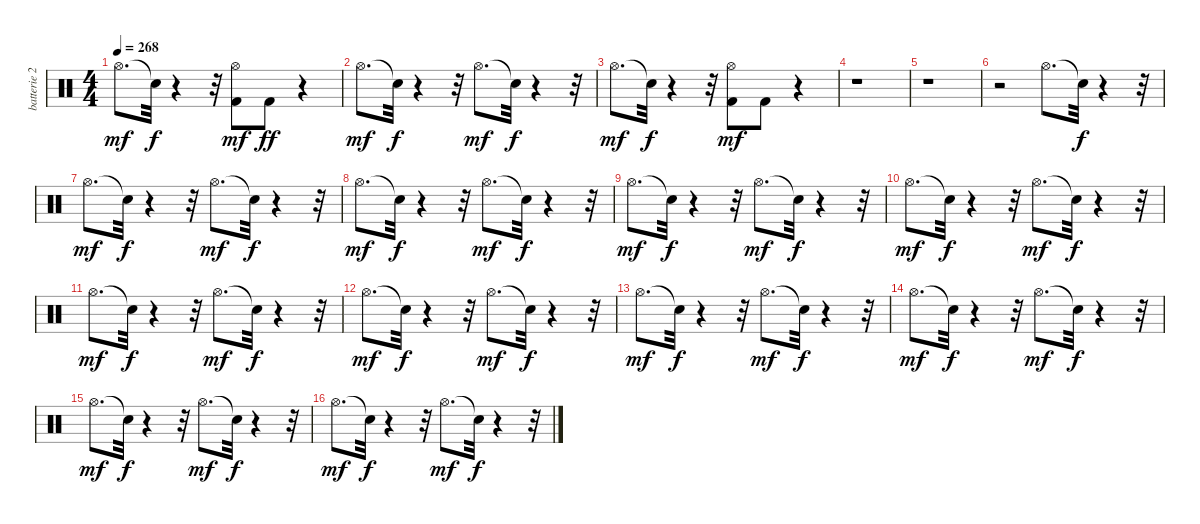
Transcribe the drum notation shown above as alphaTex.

\track ("batterie 2" "batterie 2") {instrument percussion}
\staff {score}
\articulation defaults
\ts (4 4)
\tempo 268
\clef neutral
\ks c "Hi-Hat (open)".8{d dy mf} "Snare (hit)"{t}.32{dy f}
r.4 r.32 ("Kick (hit) 2" "Hi-Hat (open)").8{dy mf} "Kick (hit) 2".8{dy ff} r.4 |
"Hi-Hat (open)".8{d dy mf} "Snare (hit)"{t}.32{dy f} r.4 r.32 "Hi-Hat (open)".8{d dy mf} "Snare (hit)"{t}.32{dy f} r.4 r.32 |
"Hi-Hat (open)".8{d dy mf} "Snare (hit)"{t}.32{dy f} r.4 r.32 ("Kick (hit) 2" "Hi-Hat (open)").8{dy mf} "Kick (hit) 2".8 r.4 |
r.1 |
r.1 |
r.2 "Hi-Hat (open)".8{d} "Snare (hit)"{t}.32{dy f} r.4 r.32 |
"Hi-Hat (open)".8{d dy mf} "Snare (hit)"{t}.32{dy f} r.4 r.32 "Hi-Hat (open)".8{d dy mf} "Snare (hit)"{t}.32{dy f} r.4 r.32 |
"Hi-Hat (open)".8{d dy mf} "Snare (hit)"{t}.32{dy f} r.4 r.32 "Hi-Hat (open)".8{d dy mf} "Snare (hit)"{t}.32{dy f} r.4 r.32 |
"Hi-Hat (open)".8{d dy mf} "Snare (hit)"{t}.32{dy f} r.4 r.32 "Hi-Hat (open)".8{d dy mf} "Snare (hit)"{t}.32{dy f} r.4 r.32 |
"Hi-Hat (open)".8{d dy mf} "Snare (hit)"{t}.32{dy f} r.4 r.32 "Hi-Hat (open)".8{d dy mf} "Snare (hit)"{t}.32{dy f} r.4 r.32 |
"Hi-Hat (open)".8{d dy mf} "Snare (hit)"{t}.32{dy f} r.4 r.32 "Hi-Hat (open)".8{d dy mf} "Snare (hit)"{t}.32{dy f} r.4 r.32 |
"Hi-Hat (open)".8{d dy mf} "Snare (hit)"{t}.32{dy f} r.4 r.32 "Hi-Hat (open)".8{d dy mf} "Snare (hit)"{t}.32{dy f} r.4 r.32 |
"Hi-Hat (open)".8{d dy mf} "Snare (hit)"{t}.32{dy f} r.4 r.32 "Hi-Hat (open)".8{d dy mf} "Snare (hit)"{t}.32{dy f} r.4 r.32 |
"Hi-Hat (open)".8{d dy mf} "Snare (hit)"{t}.32{dy f} r.4 r.32 "Hi-Hat (open)".8{d dy mf} "Snare (hit)"{t}.32{dy f} r.4 r.32 |
"Hi-Hat (open)".8{d dy mf} "Snare (hit)"{t}.32{dy f} r.4 r.32 "Hi-Hat (open)".8{d dy mf} "Snare (hit)"{t}.32{dy f} r.4 r.32 |
"Hi-Hat (open)".8{d dy mf} "Snare (hit)"{t}.32{dy f} r.4 r.32 "Hi-Hat (open)".8{d dy mf} "Snare (hit)"{t}.32{dy f} r.4 r.32
